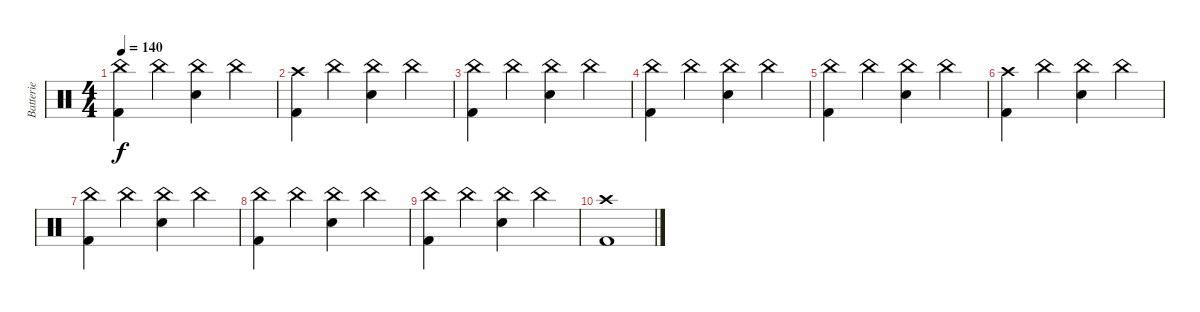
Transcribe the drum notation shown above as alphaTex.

\track ("Batterie" "Batterie") {instrument percussion}
\staff {score}
\articulation defaults
\ts (4 4)
\tempo 140
\clef neutral
\ks c
("China (hit)" "Kick (hit) 2").4{dy f} "China (hit)".4 ("China (hit)" "Electric Snare (hit)").4 "China (hit)".4 |
("Crash high (hit)" "Kick (hit) 2").4 "China (hit)".4 ("China (hit)" "Electric Snare (hit)").4 "China (hit)".4 |
("China (hit)" "Kick (hit) 2").4 "China (hit)".4 ("China (hit)" "Electric Snare (hit)").4 "China (hit)".4 |
("China (hit)" "Kick (hit) 2").4 "China (hit)".4 ("China (hit)" "Electric Snare (hit)").4 "China (hit)".4 |
("China (hit)" "Kick (hit) 2").4 "China (hit)".4 ("China (hit)" "Electric Snare (hit)").4 "China (hit)".4 |
("Crash high (hit)" "Kick (hit) 2").4 "China (hit)".4 ("China (hit)" "Electric Snare (hit)").4 "China (hit)".4 |
("China (hit)" "Kick (hit) 2").4 "China (hit)".4 ("China (hit)" "Electric Snare (hit)").4 "China (hit)".4 |
("China (hit)" "Kick (hit) 2").4 "China (hit)".4 ("China (hit)" "Electric Snare (hit)").4 "China (hit)".4 |
("China (hit)" "Kick (hit) 2").4 "China (hit)".4 ("China (hit)" "Electric Snare (hit)").4 "China (hit)".4 |
("Crash high (hit)" "Kick (hit) 2").1
